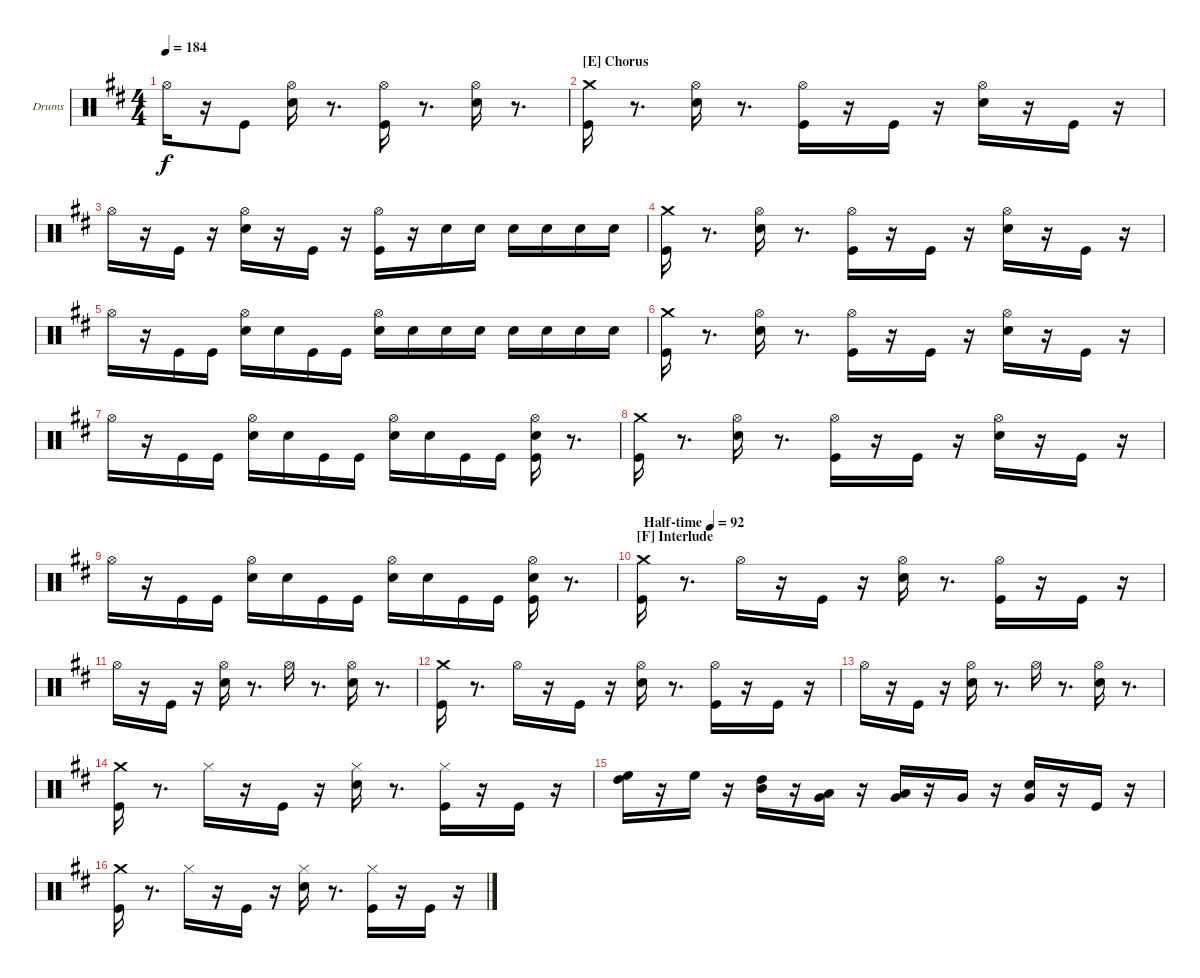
\defaultSystemsLayout 4
\bracketExtendMode groupsimilarinstruments
\firstSystemTrackNameOrientation horizontal
\otherSystemsTrackNameOrientation horizontal
\track ("Drumkit" "Drums") {instrument percussion}
\staff {score}
\articulation defaults
\ts (4 4)
\tempo 184
\clef neutral
\ks d "Hi-Hat (open)".16{dy f}
r.16 "Kick (hit)".8 ("Hi-Hat (open)" "Snare (hit) 2").16 r.8{d} ("Hi-Hat (open)" "Kick (hit)").16 r.8{d} ("Hi-Hat (open)" "Snare (hit) 2").16 r.8{d} |
\section ("E" "Chorus")
("Crash medium (hit)" "Kick (hit)").16 r.8{d} ("Hi-Hat (open)" "Snare (hit) 2").16 r.8{d} ("Hi-Hat (open)" "Kick (hit)").16 r.16 "Kick (hit)".16 r.16 ("Snare (hit) 2" "Hi-Hat (open)").16 r.16 "Kick (hit)".16 r.16 |
"Hi-Hat (open)".16 r.16 "Kick (hit)".16 r.16 ("Hi-Hat (open)" "Snare (hit) 2").16 r.16 "Kick (hit)".16 r.16 ("Kick (hit)" "Hi-Hat (open)").16 r.16 "Snare (hit) 2".16 "Snare (hit) 2".16 "Snare (hit) 2".16 "Snare (hit) 2".16 "Snare (hit) 2".16 "Snare (hit) 2".16 |
("Crash medium (hit)" "Kick (hit)").16 r.8{d} ("Hi-Hat (open)" "Snare (hit) 2").16 r.8{d} ("Hi-Hat (open)" "Kick (hit)").16 r.16 "Kick (hit)".16 r.16 ("Snare (hit) 2" "Hi-Hat (open)").16 r.16 "Kick (hit)".16 r.16 |
"Hi-Hat (open)".16 r.16 "Kick (hit)".16 "Kick (hit)".16 ("Hi-Hat (open)" "Snare (hit) 2").16 "Snare (hit) 2".16 "Kick (hit)".16 "Kick (hit)".16 ("Hi-Hat (open)" "Snare (hit) 2").16 "Snare (hit) 2".16 "Snare (hit) 2".16 "Snare (hit) 2".16 "Snare (hit) 2".16 "Snare (hit) 2".16 "Snare (hit) 2".16 "Snare (hit) 2".16 |
("Crash medium (hit)" "Kick (hit)").16 r.8{d} ("Hi-Hat (open)" "Snare (hit) 2").16 r.8{d} ("Hi-Hat (open)" "Kick (hit)").16 r.16 "Kick (hit)".16 r.16 ("Snare (hit) 2" "Hi-Hat (open)").16 r.16 "Kick (hit)".16 r.16 |
"Hi-Hat (open)".16 r.16 "Kick (hit)".16 "Kick (hit)".16 ("Hi-Hat (open)" "Snare (hit) 2").16 "Snare (hit) 2".16 "Kick (hit)".16 "Kick (hit)".16 ("Hi-Hat (open)" "Snare (hit) 2").16 "Snare (hit) 2".16 "Kick (hit)".16 "Kick (hit)".16 ("Hi-Hat (open)" "Snare (hit) 2" "Kick (hit)").16 r.8{d} |
("Crash medium (hit)" "Kick (hit)").16 r.8{d} ("Hi-Hat (open)" "Snare (hit) 2").16 r.8{d} ("Hi-Hat (open)" "Kick (hit)").16 r.16 "Kick (hit)".16 r.16 ("Snare (hit) 2" "Hi-Hat (open)").16 r.16 "Kick (hit)".16 r.16 |
"Hi-Hat (open)".16 r.16 "Kick (hit)".16 "Kick (hit)".16 ("Hi-Hat (open)" "Snare (hit) 2").16 "Snare (hit) 2".16 "Kick (hit)".16 "Kick (hit)".16 ("Hi-Hat (open)" "Snare (hit) 2").16 "Snare (hit) 2".16 "Kick (hit)".16 "Kick (hit)".16 ("Hi-Hat (open)" "Snare (hit) 2" "Kick (hit)").16 r.8{d} |
\section ("F" "Interlude")
\tempo (92 "Half-time")
("Crash medium (hit)" "Kick (hit)").16 r.8{d} "Hi-Hat (open)".16 r.16 "Kick (hit)".16 r.16 ("Snare (hit) 2" "Hi-Hat (open)").16 r.8{d} ("Kick (hit)" "Hi-Hat (open)").16 r.16 "Kick (hit)".16 r.16 |
"Hi-Hat (open)".16 r.16 "Kick (hit)".16 r.16 ("Snare (hit) 2" "Hi-Hat (open)").16 r.8{d} "Hi-Hat (open)".16 r.8{d} ("Hi-Hat (open)" "Snare (hit) 2").16 r.8{d} |
("Crash medium (hit)" "Kick (hit)").16 r.8{d} "Hi-Hat (open)".16 r.16 "Kick (hit)".16 r.16 ("Snare (hit) 2" "Hi-Hat (open)").16 r.8{d} ("Kick (hit)" "Hi-Hat (open)").16 r.16 "Kick (hit)".16 r.16 |
"Hi-Hat (open)".16 r.16 "Kick (hit)".16 r.16 ("Snare (hit) 2" "Hi-Hat (open)").16 r.8{d} "Hi-Hat (open)".16 r.8{d} ("Hi-Hat (open)" "Snare (hit) 2").16 r.8{d} |
("Crash medium (hit)" "Kick (hit)").16 r.8{d} "Hi-Hat (closed)".16 r.16 "Kick (hit)".16 r.16 ("Snare (hit) 2" "Hi-Hat (closed)").16 r.8{d} ("Kick (hit)" "Hi-Hat (closed)").16 r.16 "Kick (hit)".16 r.16 |
("High Floor Tom (hit)" "High Tom (hit)").16 r.16 "High Floor Tom (hit)".16 r.16 ("Mid Tom (hit)" "High Tom (hit)").16 r.16 ("Low Tom (hit)" "Very Low Tom (hit)").16 r.16 ("Very Low Tom (hit)" "Low Tom (hit)").16 r.16 "Very Low Tom (hit)".16 r.16 ("Very Low Tom (hit)" "Snare (hit) 2").16 r.16 "Kick (hit)".16 r.16 |
("Crash medium (hit)" "Kick (hit)").16 r.8{d} "Hi-Hat (closed)".16 r.16 "Kick (hit)".16 r.16 ("Snare (hit) 2" "Hi-Hat (closed)").16 r.8{d} ("Kick (hit)" "Hi-Hat (closed)").16 r.16 "Kick (hit)".16 r.16
